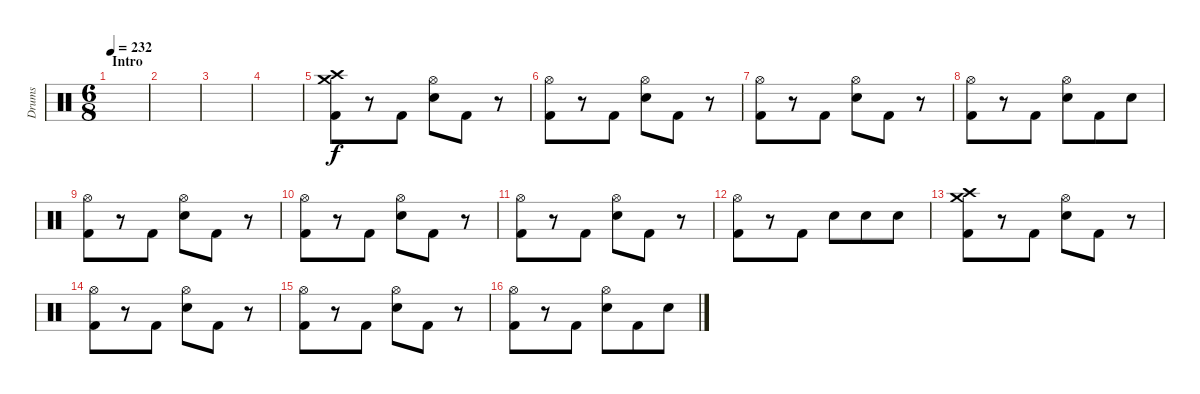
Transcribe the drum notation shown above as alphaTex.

\track ("Drums" "Drums") {instrument percussion}
\staff {score}
\articulation defaults
\ts (6 8)
\section ("" "Intro")
\tempo 232
\clef neutral
\ks c
|
|
|
|
("Crash medium (hit)" "Crash high (hit)" "Kick (hit) 2").8 r.8 "Kick (hit) 2".8 ("Hi-Hat (open)" "Snare (hit) 2").8 "Kick (hit) 2".8 r.8 |
("Hi-Hat (open)" "Kick (hit) 2").8 r.8 "Kick (hit) 2".8 ("Hi-Hat (open)" "Snare (hit) 2").8 "Kick (hit) 2".8 r.8 |
("Hi-Hat (open)" "Kick (hit) 2").8 r.8 "Kick (hit) 2".8 ("Hi-Hat (open)" "Snare (hit) 2").8 "Kick (hit) 2".8 r.8 |
("Hi-Hat (open)" "Kick (hit) 2").8 r.8 "Kick (hit) 2".8 ("Hi-Hat (open)" "Snare (hit) 2").8 "Kick (hit) 2".8 "Snare (hit) 2".8 |
("Hi-Hat (open)" "Kick (hit) 2").8 r.8 "Kick (hit) 2".8 ("Hi-Hat (open)" "Snare (hit) 2").8 "Kick (hit) 2".8 r.8 |
("Hi-Hat (open)" "Kick (hit) 2").8 r.8 "Kick (hit) 2".8 ("Hi-Hat (open)" "Snare (hit) 2").8 "Kick (hit) 2".8 r.8 |
("Hi-Hat (open)" "Kick (hit) 2").8 r.8 "Kick (hit) 2".8 ("Hi-Hat (open)" "Snare (hit) 2").8 "Kick (hit) 2".8 r.8 |
("Hi-Hat (open)" "Kick (hit) 2").8 r.8 "Kick (hit) 2".8 "Snare (hit) 2".8 "Snare (hit) 2".8 "Snare (hit) 2".8 |
("Crash medium (hit)" "Crash high (hit)" "Kick (hit) 2").8 r.8 "Kick (hit) 2".8 ("Hi-Hat (open)" "Snare (hit) 2").8 "Kick (hit) 2".8 r.8 |
("Hi-Hat (open)" "Kick (hit) 2").8 r.8 "Kick (hit) 2".8 ("Hi-Hat (open)" "Snare (hit) 2").8 "Kick (hit) 2".8 r.8 |
("Hi-Hat (open)" "Kick (hit) 2").8 r.8 "Kick (hit) 2".8 ("Hi-Hat (open)" "Snare (hit) 2").8 "Kick (hit) 2".8 r.8 |
("Hi-Hat (open)" "Kick (hit) 2").8 r.8 "Kick (hit) 2".8 ("Hi-Hat (open)" "Snare (hit) 2").8 "Kick (hit) 2".8 "Snare (hit) 2".8
